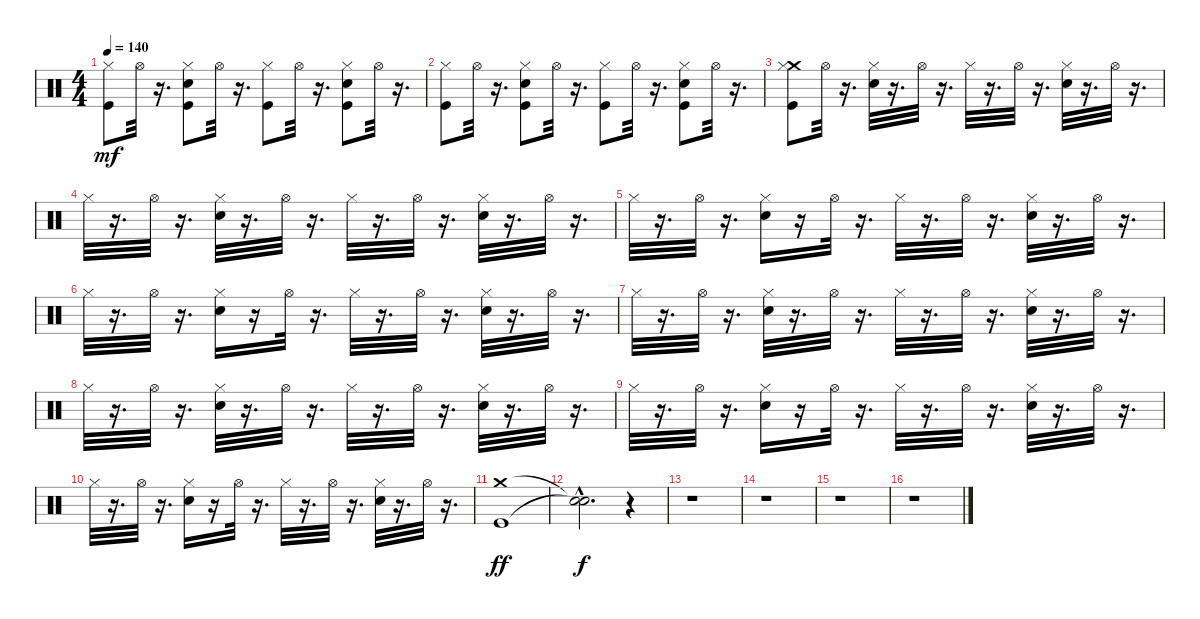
\track "" {instrument percussion}
\staff {score}
\articulation defaults
\ts (4 4)
\tempo 140
\clef neutral
\ks c
("Kick (hit)" "Hi-Hat (closed)").8{dy mf} "Hi-Hat (open)".32 r.16{d} ("Kick (hit)" "Hand Clap (hit)" "Hi-Hat (closed)").8 "Hi-Hat (open)".32 r.16{d} ("Kick (hit)" "Hi-Hat (closed)").8 "Hi-Hat (open)".32 r.16{d} ("Kick (hit)" "Hand Clap (hit)" "Hi-Hat (closed)").8 "Hi-Hat (open)".32 r.16{d} |
("Kick (hit)" "Hi-Hat (closed)").8 "Hi-Hat (open)".32 r.16{d} ("Kick (hit)" "Hand Clap (hit)" "Hi-Hat (closed)").8 "Hi-Hat (open)".32 r.16{d} ("Kick (hit)" "Hi-Hat (closed)").8 "Hi-Hat (open)".32 r.16{d} ("Kick (hit)" "Hand Clap (hit)" "Hi-Hat (closed)").8 "Hi-Hat (open)".32 r.16{d} |
("Kick (hit)" "Crash medium (hit)" "Hi-Hat (closed)").8 "Hi-Hat (open)".32 r.16{d} ("Hand Clap (hit)" "Hi-Hat (closed)").32 r.16{d} "Hi-Hat (open)".32 r.16{d} "Hi-Hat (closed)".32 r.16{d} "Hi-Hat (open)".32 r.16{d} ("Hi-Hat (closed)" "Hand Clap (hit)").32 r.16{d} "Hi-Hat (open)".32 r.16{d} |
"Hi-Hat (closed)".32 r.16{d} "Hi-Hat (open)".32 r.16{d} ("Hand Clap (hit)" "Hi-Hat (closed)").32 r.16{d} "Hi-Hat (open)".32 r.16{d} "Hi-Hat (closed)".32 r.16{d} "Hi-Hat (open)".32 r.16{d} ("Hand Clap (hit)" "Hi-Hat (closed)").32 r.16{d} "Hi-Hat (open)".32 r.16{d} |
"Hi-Hat (closed)".32 r.16{d} "Hi-Hat (open)".32 r.16{d} ("Hand Clap (hit)" "Hi-Hat (closed)").16 r.16 "Hi-Hat (open)".32 r.16{d} "Hi-Hat (closed)".32 r.16{d} "Hi-Hat (open)".32 r.16{d} ("Hi-Hat (closed)" "Hand Clap (hit)").32 r.16{d} "Hi-Hat (open)".32 r.16{d} |
"Hi-Hat (closed)".32 r.16{d} "Hi-Hat (open)".32 r.16{d} ("Hi-Hat (closed)" "Hand Clap (hit)").16 r.16 "Hi-Hat (open)".32 r.16{d} "Hi-Hat (closed)".32 r.16{d} "Hi-Hat (open)".32 r.16{d} ("Hand Clap (hit)" "Hi-Hat (closed)").32 r.16{d} "Hi-Hat (open)".32 r.16{d} |
"Hi-Hat (closed)".32 r.16{d} "Hi-Hat (open)".32 r.16{d} ("Hi-Hat (closed)" "Hand Clap (hit)").32 r.16{d} "Hi-Hat (open)".32 r.16{d} "Hi-Hat (closed)".32 r.16{d} "Hi-Hat (open)".32 r.16{d} ("Hi-Hat (closed)" "Hand Clap (hit)").32 r.16{d} "Hi-Hat (open)".32 r.16{d} |
"Hi-Hat (closed)".32 r.16{d} "Hi-Hat (open)".32 r.16{d} ("Hand Clap (hit)" "Hi-Hat (closed)").32 r.16{d} "Hi-Hat (open)".32 r.16{d} "Hi-Hat (closed)".32 r.16{d} "Hi-Hat (open)".32 r.16{d} ("Hand Clap (hit)" "Hi-Hat (closed)").32 r.16{d} "Hi-Hat (open)".32 r.16{d} |
"Hi-Hat (closed)".32 r.16{d} "Hi-Hat (open)".32 r.16{d} ("Hand Clap (hit)" "Hi-Hat (closed)").16 r.16 "Hi-Hat (open)".32 r.16{d} "Hi-Hat (closed)".32 r.16{d} "Hi-Hat (open)".32 r.16{d} ("Hi-Hat (closed)" "Hand Clap (hit)").32 r.16{d} "Hi-Hat (open)".32 r.16{d} |
"Hi-Hat (closed)".32 r.16{d} "Hi-Hat (open)".32 r.16{d} ("Hi-Hat (closed)" "Hand Clap (hit)").16 r.16 "Hi-Hat (open)".32 r.16{d} "Hi-Hat (closed)".32 r.16{d} "Hi-Hat (open)".32 r.16{d} ("Hi-Hat (closed)" "Hand Clap (hit)").32 r.16{d} "Hi-Hat (open)".32 r.16{d} |
("Crash medium (hit)" "Kick (hit)").1{dy ff} |
("Snare (hit)"{t} "Snare (hit)"{hac t}).2{d dy f} r.4 |
r.1 |
r.1 |
r.1 |
r.1
